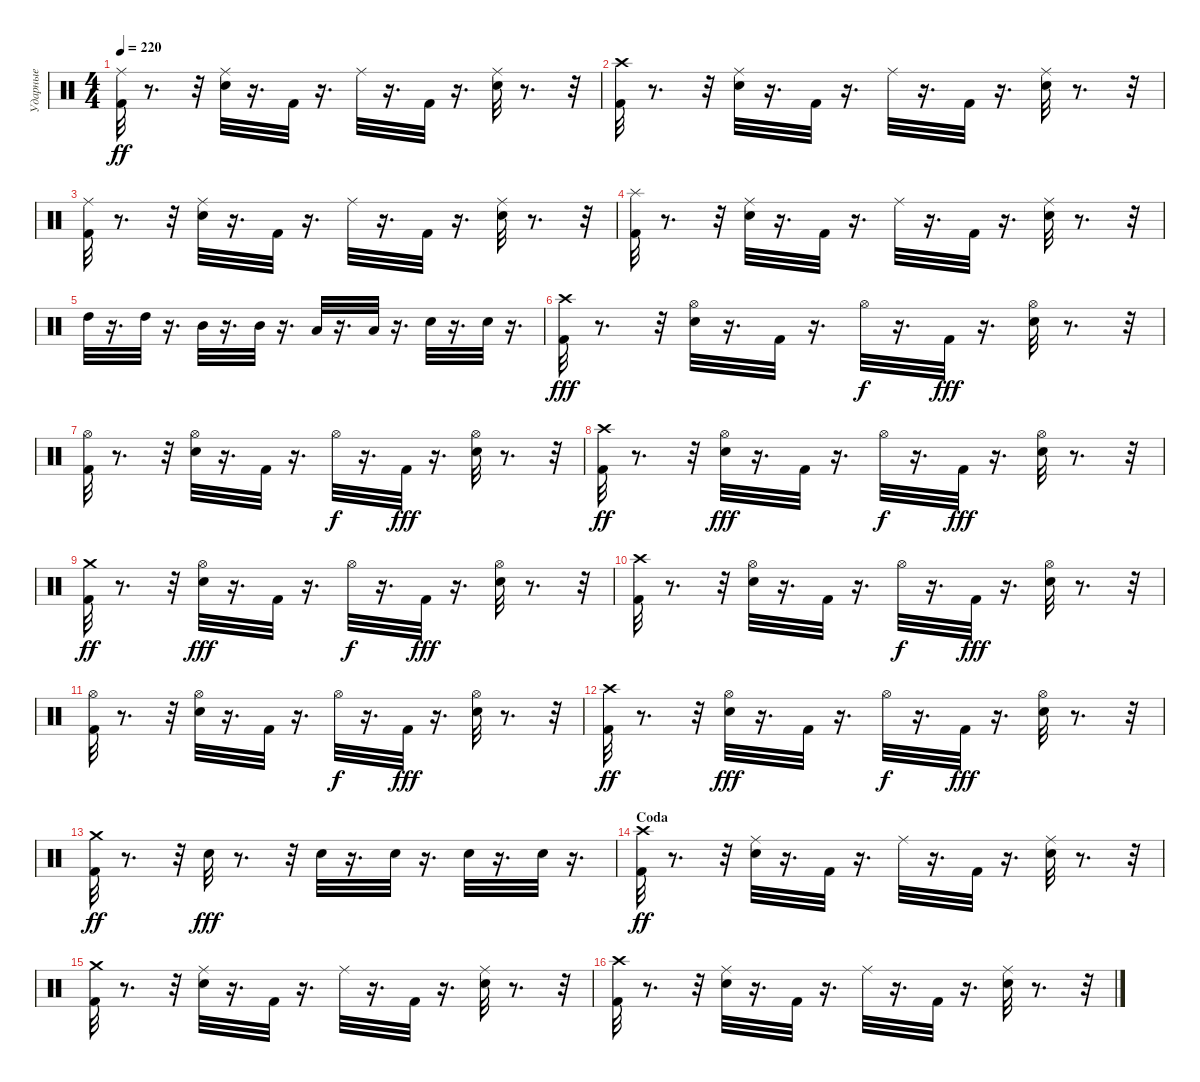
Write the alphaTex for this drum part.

\track ("Ударные" "Ударные") {instrument percussion}
\staff {score}
\articulation defaults
\ts (4 4)
\tempo 220
\clef neutral
\ks c
("Kick (hit) 2" "Ride (middle)").32{dy ff} r.8{d} r.32 ("Snare (hit) 2" "Ride (middle)").32 r.16{d} "Kick (hit) 2".32 r.16{d} "Ride (middle)".32 r.16{d} "Kick (hit) 2".32 r.16{d} ("Snare (hit) 2" "Ride (middle)").32 r.8{d} r.32 |
("Crash high (hit)" "Kick (hit) 2").32 r.8{d} r.32 ("Ride (middle)" "Snare (hit) 2").32 r.16{d} "Kick (hit) 2".32 r.16{d} "Ride (middle)".32 r.16{d} "Kick (hit) 2".32 r.16{d} ("Ride (middle)" "Snare (hit) 2").32 r.8{d} r.32 |
("Kick (hit) 2" "Ride (middle)").32 r.8{d} r.32 ("Snare (hit) 2" "Ride (middle)").32 r.16{d} "Kick (hit) 2".32 r.16{d} "Ride (middle)".32 r.16{d} "Kick (hit) 2".32 r.16{d} ("Snare (hit) 2" "Ride (middle)").32 r.8{d} r.32 |
("Splash (hit)" "Kick (hit) 2").32 r.8{d} r.32 ("Ride (middle)" "Snare (hit) 2").32 r.16{d} "Kick (hit) 2".32 r.16{d} "Ride (middle)".32 r.16{d} "Kick (hit) 2".32 r.16{d} ("Ride (middle)" "Snare (hit) 2").32 r.8{d} r.32 |
"High Tom (hit)".32 r.16{d} "High Tom (hit)".32 r.16{d} "Mid Tom (hit)".32 r.16{d} "Mid Tom (hit)".32 r.16{d} "Low Tom (hit)".32 r.16{d} "Low Tom (hit)".32 r.16{d} "Snare (hit) 2".32 r.16{d} "Snare (hit) 2".32 r.16{d} |
("Crash high (hit)" "Kick (hit) 2").32{dy fff} r.8{d} r.32 ("Hi-Hat (open)" "Snare (hit) 2").32 r.16{d} "Kick (hit) 2".32 r.16{d} "Hi-Hat (open)".32{dy f} r.16{d} "Kick (hit) 2".32{dy fff} r.16{d} ("Hi-Hat (open)" "Snare (hit) 2").32 r.8{d} r.32 |
("Hi-Hat (open)" "Kick (hit) 2").32 r.8{d} r.32 ("Hi-Hat (open)" "Snare (hit) 2").32 r.16{d} "Kick (hit) 2".32 r.16{d} "Hi-Hat (open)".32{dy f} r.16{d} "Kick (hit) 2".32{dy fff} r.16{d} ("Hi-Hat (open)" "Snare (hit) 2").32 r.8{d} r.32 |
("Kick (hit) 2" "Crash high (hit)").32{dy ff} r.8{d} r.32 ("Snare (hit) 2" "Hi-Hat (open)").32{dy fff} r.16{d} "Kick (hit) 2".32 r.16{d} "Hi-Hat (open)".32{dy f} r.16{d} "Kick (hit) 2".32{dy fff} r.16{d} ("Snare (hit) 2" "Hi-Hat (open)").32 r.8{d} r.32 |
("Kick (hit) 2" "Crash medium (hit)").32{dy ff} r.8{d} r.32 ("Snare (hit) 2" "Hi-Hat (open)").32{dy fff} r.16{d} "Kick (hit) 2".32 r.16{d} "Hi-Hat (open)".32{dy f} r.16{d} "Kick (hit) 2".32{dy fff} r.16{d} ("Snare (hit) 2" "Hi-Hat (open)").32 r.8{d} r.32 |
("Crash high (hit)" "Kick (hit) 2").32 r.8{d} r.32 ("Hi-Hat (open)" "Snare (hit) 2").32 r.16{d} "Kick (hit) 2".32 r.16{d} "Hi-Hat (open)".32{dy f} r.16{d} "Kick (hit) 2".32{dy fff} r.16{d} ("Hi-Hat (open)" "Snare (hit) 2").32 r.8{d} r.32 |
("Hi-Hat (open)" "Kick (hit) 2").32 r.8{d} r.32 ("Hi-Hat (open)" "Snare (hit) 2").32 r.16{d} "Kick (hit) 2".32 r.16{d} "Hi-Hat (open)".32{dy f} r.16{d} "Kick (hit) 2".32{dy fff} r.16{d} ("Hi-Hat (open)" "Snare (hit) 2").32 r.8{d} r.32 |
("Kick (hit) 2" "Crash high (hit)").32{dy ff} r.8{d} r.32 ("Snare (hit) 2" "Hi-Hat (open)").32{dy fff} r.16{d} "Kick (hit) 2".32 r.16{d} "Hi-Hat (open)".32{dy f} r.16{d} "Kick (hit) 2".32{dy fff} r.16{d} ("Snare (hit) 2" "Hi-Hat (open)").32 r.8{d} r.32 |
("Kick (hit) 2" "Crash medium (hit)").32{dy ff} r.8{d} r.32 "Snare (hit) 2".32{dy fff} r.8{d} r.32 "Snare (hit) 2".32 r.16{d} "Snare (hit) 2".32 r.16{d} "Snare (hit) 2".32 r.16{d} "Snare (hit) 2".32 r.16{d} |
\section ("" "Coda")
("Kick (hit) 2" "Crash high (hit)").32{dy ff} r.8{d} r.32 ("Ride (middle)" "Snare (hit) 2").32 r.16{d} "Kick (hit) 2".32 r.16{d} "Ride (middle)".32 r.16{d} "Kick (hit) 2".32 r.16{d} ("Ride (middle)" "Snare (hit) 2").32 r.8{d} r.32 |
("Crash medium (hit)" "Kick (hit) 2").32 r.8{d} r.32 ("Snare (hit) 2" "Ride (middle)").32 r.16{d} "Kick (hit) 2".32 r.16{d} "Ride (middle)".32 r.16{d} "Kick (hit) 2".32 r.16{d} ("Snare (hit) 2" "Ride (middle)").32 r.8{d} r.32 |
("Kick (hit) 2" "Crash high (hit)").32 r.8{d} r.32 ("Snare (hit) 2" "Ride (middle)").32 r.16{d} "Kick (hit) 2".32 r.16{d} "Ride (middle)".32 r.16{d} "Kick (hit) 2".32 r.16{d} ("Snare (hit) 2" "Ride (middle)").32 r.8{d} r.32
